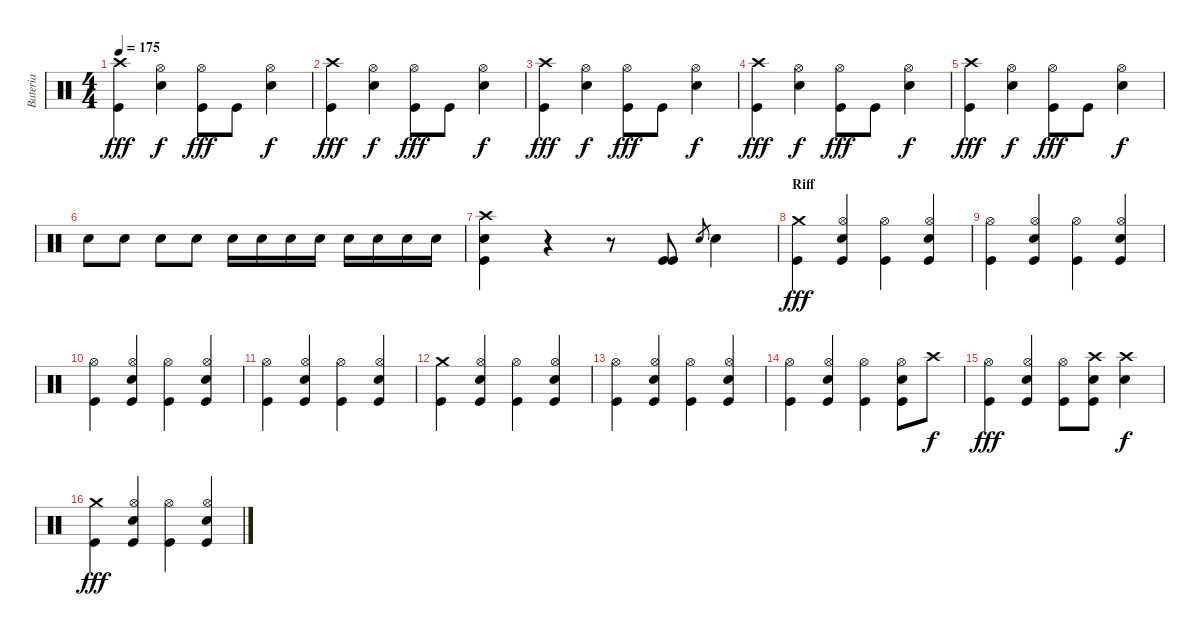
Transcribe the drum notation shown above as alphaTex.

\track ("Bateria" "Bateria") {instrument percussion}
\staff {score}
\articulation defaults
\ts (4 4)
\tempo 175
\clef neutral
\ks c
("Crash high (hit)" "Kick (hit)").4{dy fff} ("Hi-Hat (open)" "Electric Snare (hit)").4{dy f} ("Hi-Hat (open)" "Kick (hit)").8{dy fff} "Kick (hit)".8 ("Hi-Hat (open)" "Electric Snare (hit)").4{dy f} |
("Crash high (hit)" "Kick (hit)").4{dy fff} ("Hi-Hat (open)" "Electric Snare (hit)").4{dy f} ("Hi-Hat (open)" "Kick (hit)").8{dy fff} "Kick (hit)".8 ("Hi-Hat (open)" "Electric Snare (hit)").4{dy f} |
("Crash high (hit)" "Kick (hit)").4{dy fff} ("Hi-Hat (open)" "Electric Snare (hit)").4{dy f} ("Hi-Hat (open)" "Kick (hit)").8{dy fff} "Kick (hit)".8 ("Hi-Hat (open)" "Electric Snare (hit)").4{dy f} |
("Crash high (hit)" "Kick (hit)").4{dy fff} ("Hi-Hat (open)" "Electric Snare (hit)").4{dy f} ("Hi-Hat (open)" "Kick (hit)").8{dy fff} "Kick (hit)".8 ("Hi-Hat (open)" "Electric Snare (hit)").4{dy f} |
("Crash high (hit)" "Kick (hit)").4{dy fff} ("Hi-Hat (open)" "Electric Snare (hit)").4{dy f} ("Hi-Hat (open)" "Kick (hit)").8{dy fff} "Kick (hit)".8 ("Hi-Hat (open)" "Electric Snare (hit)").4{dy f} |
"Electric Snare (hit)".8 "Electric Snare (hit)".8 "Electric Snare (hit)".8 "Electric Snare (hit)".8 "Electric Snare (hit)".16 "Electric Snare (hit)".16 "Electric Snare (hit)".16 "Electric Snare (hit)".16 "Electric Snare (hit)".16 "Electric Snare (hit)".16 "Electric Snare (hit)".16 "Electric Snare (hit)".16 |
("Crash high (hit)" "Electric Snare (hit)" "Kick (hit)").4 r.4 r.8 ("Kick (hit)" "Kick (hit)").8 "Electric Snare (hit)".8{gr} "Electric Snare (hit)".4 |
\section ("" "Riff")
("Crash medium (hit)" "Kick (hit)").4{dy fff} ("Hi-Hat (open)" "Electric Snare (hit)" "Kick (hit)").4 ("Hi-Hat (open)" "Kick (hit)").4 ("Hi-Hat (open)" "Electric Snare (hit)" "Kick (hit)").4 |
("Hi-Hat (open)" "Kick (hit)").4 ("Hi-Hat (open)" "Electric Snare (hit)" "Kick (hit)").4 ("Hi-Hat (open)" "Kick (hit)").4 ("Hi-Hat (open)" "Electric Snare (hit)" "Kick (hit)").4 |
("Hi-Hat (open)" "Kick (hit)").4 ("Hi-Hat (open)" "Electric Snare (hit)" "Kick (hit)").4 ("Hi-Hat (open)" "Kick (hit)").4 ("Hi-Hat (open)" "Electric Snare (hit)" "Kick (hit)").4 |
("Hi-Hat (open)" "Kick (hit)").4 ("Hi-Hat (open)" "Electric Snare (hit)" "Kick (hit)").4 ("Hi-Hat (open)" "Kick (hit)").4 ("Hi-Hat (open)" "Electric Snare (hit)" "Kick (hit)").4 |
("Crash medium (hit)" "Kick (hit)").4 ("Hi-Hat (open)" "Electric Snare (hit)" "Kick (hit)").4 ("Hi-Hat (open)" "Kick (hit)").4 ("Hi-Hat (open)" "Electric Snare (hit)" "Kick (hit)").4 |
("Hi-Hat (open)" "Kick (hit)").4 ("Hi-Hat (open)" "Electric Snare (hit)" "Kick (hit)").4 ("Hi-Hat (open)" "Kick (hit)").4 ("Hi-Hat (open)" "Electric Snare (hit)" "Kick (hit)").4 |
("Hi-Hat (open)" "Kick (hit)").4 ("Hi-Hat (open)" "Electric Snare (hit)" "Kick (hit)").4 ("Hi-Hat (open)" "Kick (hit)").4 ("Hi-Hat (open)" "Electric Snare (hit)" "Kick (hit)").8 "Crash high (hit)".8{dy f} |
("Hi-Hat (open)" "Kick (hit)").4{dy fff} ("Hi-Hat (open)" "Electric Snare (hit)" "Kick (hit)").4 ("Hi-Hat (open)" "Kick (hit)").8 ("Crash high (hit)" "Electric Snare (hit)" "Kick (hit)").8 ("Crash high (hit)" "Electric Snare (hit)").4{dy f} |
("Crash medium (hit)" "Kick (hit)").4{dy fff} ("Hi-Hat (open)" "Electric Snare (hit)" "Kick (hit)").4 ("Hi-Hat (open)" "Kick (hit)").4 ("Hi-Hat (open)" "Electric Snare (hit)" "Kick (hit)").4
